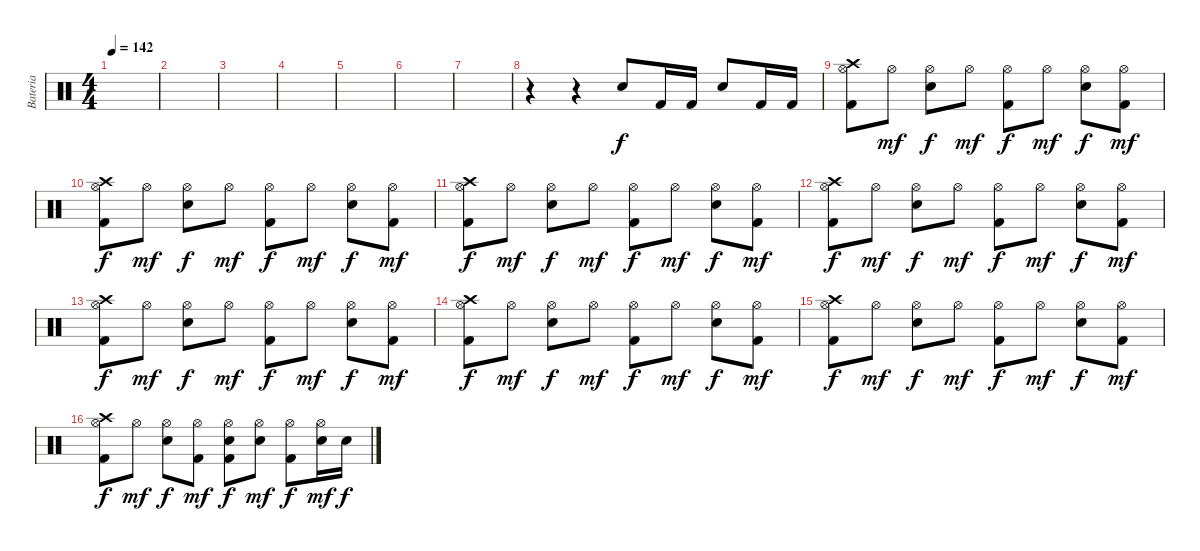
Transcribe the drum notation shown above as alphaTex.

\track ("Bateria" "Bateria") {instrument percussion}
\staff {score}
\articulation defaults
\ts (4 4)
\tempo 142
\clef neutral
\ks c
|
|
|
|
|
|
|
r.4 r.4 "Electric Snare (hit)".8 "Kick (hit) 2".16 "Kick (hit) 2".16 "Electric Snare (hit)".8 "Kick (hit) 2".16 "Kick (hit) 2".16 |
("Crash high (hit)" "Kick (hit) 2" "Hi-Hat (open)").8 "Hi-Hat (open)".8{dy mf} ("Electric Snare (hit)" "Hi-Hat (open)").8{dy f} "Hi-Hat (open)".8{dy mf} ("Kick (hit) 2" "Hi-Hat (open)").8{dy f} "Hi-Hat (open)".8{dy mf} ("Electric Snare (hit)" "Hi-Hat (open)").8{dy f} ("Kick (hit) 2" "Hi-Hat (open)").8{dy mf} |
("Crash high (hit)" "Kick (hit) 2" "Hi-Hat (open)").8{dy f} "Hi-Hat (open)".8{dy mf} ("Electric Snare (hit)" "Hi-Hat (open)").8{dy f} "Hi-Hat (open)".8{dy mf} ("Kick (hit) 2" "Hi-Hat (open)").8{dy f} "Hi-Hat (open)".8{dy mf} ("Electric Snare (hit)" "Hi-Hat (open)").8{dy f} ("Kick (hit) 2" "Hi-Hat (open)").8{dy mf} |
("Crash high (hit)" "Kick (hit) 2" "Hi-Hat (open)").8{dy f} "Hi-Hat (open)".8{dy mf} ("Electric Snare (hit)" "Hi-Hat (open)").8{dy f} "Hi-Hat (open)".8{dy mf} ("Kick (hit) 2" "Hi-Hat (open)").8{dy f} "Hi-Hat (open)".8{dy mf} ("Electric Snare (hit)" "Hi-Hat (open)").8{dy f} ("Kick (hit) 2" "Hi-Hat (open)").8{dy mf} |
("Crash high (hit)" "Kick (hit) 2" "Hi-Hat (open)").8{dy f} "Hi-Hat (open)".8{dy mf} ("Electric Snare (hit)" "Hi-Hat (open)").8{dy f} "Hi-Hat (open)".8{dy mf} ("Kick (hit) 2" "Hi-Hat (open)").8{dy f} "Hi-Hat (open)".8{dy mf} ("Electric Snare (hit)" "Hi-Hat (open)").8{dy f} ("Kick (hit) 2" "Hi-Hat (open)").8{dy mf} |
("Crash high (hit)" "Kick (hit) 2" "Hi-Hat (open)").8{dy f} "Hi-Hat (open)".8{dy mf} ("Electric Snare (hit)" "Hi-Hat (open)").8{dy f} "Hi-Hat (open)".8{dy mf} ("Kick (hit) 2" "Hi-Hat (open)").8{dy f} "Hi-Hat (open)".8{dy mf} ("Electric Snare (hit)" "Hi-Hat (open)").8{dy f} ("Kick (hit) 2" "Hi-Hat (open)").8{dy mf} |
("Crash high (hit)" "Kick (hit) 2" "Hi-Hat (open)").8{dy f} "Hi-Hat (open)".8{dy mf} ("Electric Snare (hit)" "Hi-Hat (open)").8{dy f} "Hi-Hat (open)".8{dy mf} ("Kick (hit) 2" "Hi-Hat (open)").8{dy f} "Hi-Hat (open)".8{dy mf} ("Electric Snare (hit)" "Hi-Hat (open)").8{dy f} ("Kick (hit) 2" "Hi-Hat (open)").8{dy mf} |
("Crash high (hit)" "Kick (hit) 2" "Hi-Hat (open)").8{dy f} "Hi-Hat (open)".8{dy mf} ("Electric Snare (hit)" "Hi-Hat (open)").8{dy f} "Hi-Hat (open)".8{dy mf} ("Kick (hit) 2" "Hi-Hat (open)").8{dy f} "Hi-Hat (open)".8{dy mf} ("Electric Snare (hit)" "Hi-Hat (open)").8{dy f} ("Kick (hit) 2" "Hi-Hat (open)").8{dy mf} |
("Crash high (hit)" "Kick (hit) 2" "Hi-Hat (open)").8{dy f} "Hi-Hat (open)".8{dy mf} ("Electric Snare (hit)" "Hi-Hat (open)").8{dy f} ("Kick (hit) 2" "Hi-Hat (open)").8{dy mf} ("Electric Snare (hit)" "Kick (hit) 2" "Hi-Hat (open)").8{dy f} ("Electric Snare (hit)" "Hi-Hat (open)").8{dy mf} ("Kick (hit) 2" "Hi-Hat (open)").8{dy f} ("Electric Snare (hit)" "Hi-Hat (open)").16{dy mf} "Electric Snare (hit)".16{dy f}
